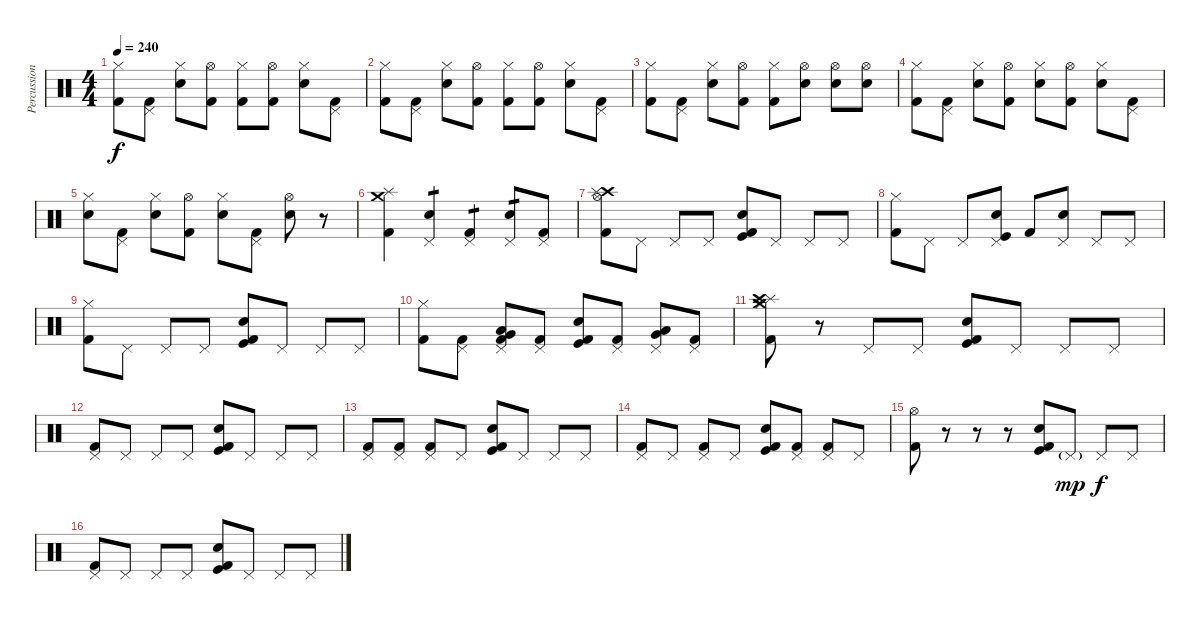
\track ("Percussion" "Percussion") {instrument percussion}
\staff {score}
\articulation defaults
\ts (4 4)
\tempo 240
\clef neutral
\ks c
("Hi-Hat (closed)" "Kick (hit) 2").8{dy f} ("Pedal Hi-Hat (hit)" "Kick (hit) 2").8 ("Hi-Hat (closed)" "Snare (hit) 2").8 ("Hi-Hat (open)" "Kick (hit) 2").8 ("Hi-Hat (closed)" "Kick (hit) 2").8 ("Hi-Hat (open)" "Kick (hit) 2").8 ("Hi-Hat (closed)" "Snare (hit) 2").8 ("Pedal Hi-Hat (hit)" "Kick (hit) 2").8 |
("Hi-Hat (closed)" "Kick (hit) 2").8 ("Pedal Hi-Hat (hit)" "Kick (hit) 2").8 ("Hi-Hat (closed)" "Snare (hit) 2").8 ("Hi-Hat (open)" "Kick (hit) 2").8 ("Hi-Hat (closed)" "Kick (hit) 2").8 ("Hi-Hat (open)" "Kick (hit) 2").8 ("Hi-Hat (closed)" "Snare (hit) 2").8 ("Pedal Hi-Hat (hit)" "Kick (hit) 2").8 |
("Hi-Hat (closed)" "Kick (hit) 2").8 ("Pedal Hi-Hat (hit)" "Kick (hit) 2").8 ("Hi-Hat (closed)" "Snare (hit) 2").8 ("Hi-Hat (open)" "Kick (hit) 2").8 ("Hi-Hat (closed)" "Kick (hit) 2").8 ("Hi-Hat (open)" "Snare (hit) 2").8 ("Hi-Hat (open)" "Snare (hit) 2").8 ("Hi-Hat (open)" "Snare (hit) 2").8 |
("Hi-Hat (closed)" "Kick (hit) 2").8 ("Pedal Hi-Hat (hit)" "Kick (hit) 2").8 ("Hi-Hat (closed)" "Snare (hit) 2").8 ("Hi-Hat (open)" "Kick (hit) 2").8 ("Hi-Hat (closed)" "Snare (hit) 2").8 ("Hi-Hat (open)" "Kick (hit) 2").8 ("Hi-Hat (closed)" "Snare (hit) 2").8 ("Pedal Hi-Hat (hit)" "Kick (hit) 2").8 |
("Hi-Hat (closed)" "Snare (hit) 2").8 ("Pedal Hi-Hat (hit)" "Kick (hit) 2").8 ("Hi-Hat (closed)" "Snare (hit) 2").8 ("Hi-Hat (open)" "Kick (hit) 2").8 ("Hi-Hat (closed)" "Snare (hit) 2").8 ("Pedal Hi-Hat (hit)" "Kick (hit) 2").8 ("Hi-Hat (open)" "Snare (hit) 2").8 r.8 |
("Crash medium (hit)" "Splash (hit)" "Kick (hit) 2").4 ("Pedal Hi-Hat (hit)" "Snare (hit) 2").4{tp 1} ("Pedal Hi-Hat (hit)" "Kick (hit) 2").4{tp 1} ("Pedal Hi-Hat (hit)" "Snare (hit) 2").8{tp 1} ("Pedal Hi-Hat (hit)" "Kick (hit) 2").8 |
("Hi-Hat (open)" "Crash high (hit)" "Splash (hit)" "Kick (hit) 2").8 "Pedal Hi-Hat (hit)".8 "Pedal Hi-Hat (hit)".8 "Pedal Hi-Hat (hit)".8 ("Kick (hit)" "Snare (hit) 2" "Kick (hit) 2").8 "Pedal Hi-Hat (hit)".8 "Pedal Hi-Hat (hit)".8 "Pedal Hi-Hat (hit)".8 |
("Hi-Hat (closed)" "Kick (hit) 2").8 "Pedal Hi-Hat (hit)".8 "Pedal Hi-Hat (hit)".8 ("Pedal Hi-Hat (hit)" "Kick (hit)" "Snare (hit) 2").8 "Kick (hit) 2".8 ("Pedal Hi-Hat (hit)" "Snare (hit) 2").8 "Pedal Hi-Hat (hit)".8 "Pedal Hi-Hat (hit)".8 |
("Hi-Hat (closed)" "Kick (hit) 2").8 "Pedal Hi-Hat (hit)".8 "Pedal Hi-Hat (hit)".8 "Pedal Hi-Hat (hit)".8 ("Kick (hit)" "Snare (hit) 2" "Kick (hit) 2").8 "Pedal Hi-Hat (hit)".8 "Pedal Hi-Hat (hit)".8 "Pedal Hi-Hat (hit)".8 |
("Hi-Hat (closed)" "Kick (hit) 2").8 ("Pedal Hi-Hat (hit)" "Kick (hit) 2").8 ("Pedal Hi-Hat (hit)" "Low Tom (hit)" "Very Low Tom (hit)" "Kick (hit) 2").8 ("Pedal Hi-Hat (hit)" "Kick (hit) 2").8 ("Kick (hit)" "Snare (hit) 2" "Kick (hit) 2").8 ("Pedal Hi-Hat (hit)" "Kick (hit) 2").8 ("Pedal Hi-Hat (hit)" "Very Low Tom (hit)" "Low Floor Tom (hit)").8 ("Pedal Hi-Hat (hit)" "Kick (hit) 2").8 |
("Hi-Hat (closed)" "Splash (hit)" "Crash medium (hit)" "Crash high (hit)" "Kick (hit) 2").8 r.8 "Pedal Hi-Hat (hit)".8 "Pedal Hi-Hat (hit)".8 ("Kick (hit)" "Snare (hit) 2" "Kick (hit) 2").8 "Pedal Hi-Hat (hit)".8 "Pedal Hi-Hat (hit)".8 "Pedal Hi-Hat (hit)".8 |
("Pedal Hi-Hat (hit)" "Kick (hit) 2").8 "Pedal Hi-Hat (hit)".8 "Pedal Hi-Hat (hit)".8 "Pedal Hi-Hat (hit)".8 ("Kick (hit)" "Snare (hit) 2" "Kick (hit) 2").8 "Pedal Hi-Hat (hit)".8 "Pedal Hi-Hat (hit)".8 "Pedal Hi-Hat (hit)".8 |
("Pedal Hi-Hat (hit)" "Kick (hit) 2").8 ("Pedal Hi-Hat (hit)" "Kick (hit) 2").8 ("Pedal Hi-Hat (hit)" "Kick (hit) 2").8 "Pedal Hi-Hat (hit)".8 ("Kick (hit)" "Snare (hit) 2" "Kick (hit) 2").8 "Pedal Hi-Hat (hit)".8 "Pedal Hi-Hat (hit)".8 "Pedal Hi-Hat (hit)".8 |
("Pedal Hi-Hat (hit)" "Kick (hit) 2").8 "Pedal Hi-Hat (hit)".8 ("Pedal Hi-Hat (hit)" "Kick (hit) 2").8 "Pedal Hi-Hat (hit)".8 ("Kick (hit)" "Snare (hit) 2" "Kick (hit) 2").8 ("Pedal Hi-Hat (hit)" "Kick (hit) 2").8 ("Pedal Hi-Hat (hit)" "Kick (hit) 2").8 "Pedal Hi-Hat (hit)".8 |
("Hi-Hat (open)" "Kick (hit) 2").8 r.8 r.8 r.8 ("Kick (hit)" "Snare (hit) 2" "Kick (hit) 2").8 "Pedal Hi-Hat (hit)"{g}.8{dy mp} "Pedal Hi-Hat (hit)".8{dy f} "Pedal Hi-Hat (hit)".8 |
("Pedal Hi-Hat (hit)" "Kick (hit) 2").8 "Pedal Hi-Hat (hit)".8 "Pedal Hi-Hat (hit)".8 "Pedal Hi-Hat (hit)".8 ("Kick (hit)" "Snare (hit) 2" "Kick (hit) 2").8 "Pedal Hi-Hat (hit)".8 "Pedal Hi-Hat (hit)".8 "Pedal Hi-Hat (hit)".8
